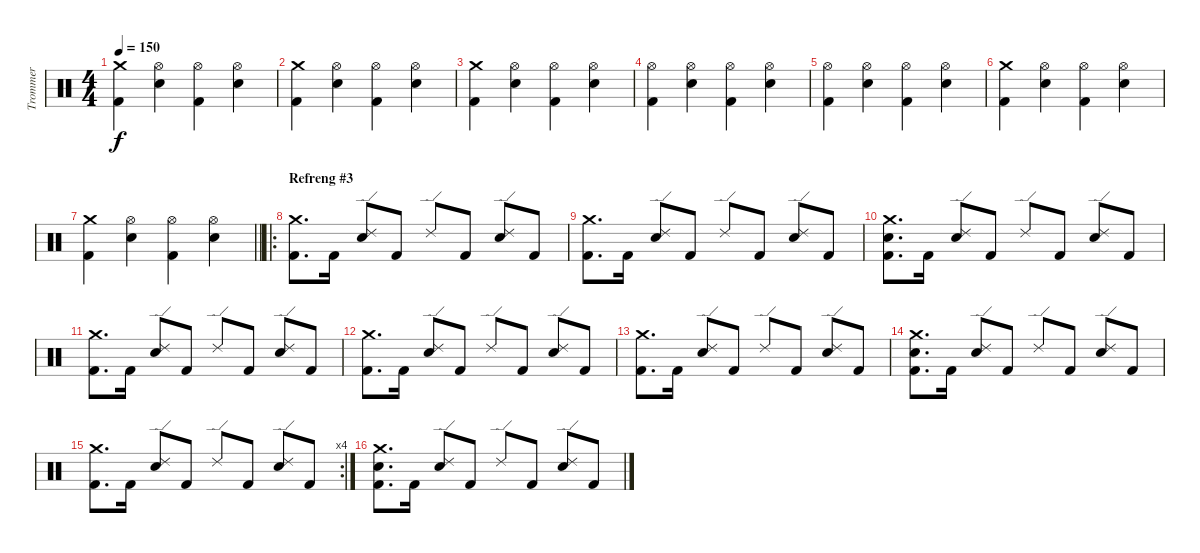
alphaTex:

\track ("Trommer" "Trommer") {instrument percussion}
\staff {score}
\articulation defaults
\ts (4 4)
\tempo 150
\clef neutral
\ks c
("Crash medium (hit)" "Kick (hit) 2").4{dy f} ("Hi-Hat (open)" "Snare (hit) 2").4 ("Hi-Hat (open)" "Kick (hit) 2").4 ("Hi-Hat (open)" "Snare (hit) 2").4 |
("Crash medium (hit)" "Kick (hit) 2").4 ("Hi-Hat (open)" "Snare (hit) 2").4 ("Hi-Hat (open)" "Kick (hit) 2").4 ("Hi-Hat (open)" "Snare (hit) 2").4 |
("Crash medium (hit)" "Kick (hit) 2").4 ("Hi-Hat (open)" "Snare (hit) 2").4 ("Hi-Hat (open)" "Kick (hit) 2").4 ("Hi-Hat (open)" "Snare (hit) 2").4 |
("Hi-Hat (open)" "Kick (hit) 2").4 ("Hi-Hat (open)" "Snare (hit) 2").4 ("Hi-Hat (open)" "Kick (hit) 2").4 ("Hi-Hat (open)" "Snare (hit) 2").4 |
("Hi-Hat (open)" "Kick (hit) 2").4 ("Hi-Hat (open)" "Snare (hit) 2").4 ("Hi-Hat (open)" "Kick (hit) 2").4 ("Hi-Hat (open)" "Snare (hit) 2").4 |
("Crash medium (hit)" "Kick (hit) 2").4 ("Hi-Hat (open)" "Snare (hit) 2").4 ("Hi-Hat (open)" "Kick (hit) 2").4 ("Hi-Hat (open)" "Snare (hit) 2").4 |
\barLineRight lightlight
("Crash medium (hit)" "Kick (hit) 2").4 ("Hi-Hat (open)" "Snare (hit) 2").4 ("Hi-Hat (open)" "Kick (hit) 2").4 ("Hi-Hat (open)" "Snare (hit) 2").4 |
\ro
\section ("" "Refreng #3")
("Crash medium (hit)" "Kick (hit) 2").8{d} "Kick (hit) 2".16 ("Ride (edge) 2" "Snare (hit) 2").8 "Kick (hit) 2".8 "Ride (edge) 2".8 "Kick (hit) 2".8 ("Ride (edge) 2" "Snare (hit) 2").8 "Kick (hit) 2".8 |
("Crash medium (hit)" "Kick (hit) 2").8{d} "Kick (hit) 2".16 ("Ride (edge) 2" "Snare (hit) 2").8 "Kick (hit) 2".8 "Ride (edge) 2".8 "Kick (hit) 2".8 ("Ride (edge) 2" "Snare (hit) 2").8 "Kick (hit) 2".8 |
("Crash medium (hit)" "Snare (hit) 2" "Kick (hit) 2").8{d} "Kick (hit) 2".16 ("Ride (edge) 2" "Snare (hit) 2").8 "Kick (hit) 2".8 "Ride (edge) 2".8 "Kick (hit) 2".8 ("Ride (edge) 2" "Snare (hit) 2").8 "Kick (hit) 2".8 |
("Crash medium (hit)" "Kick (hit) 2").8{d} "Kick (hit) 2".16 ("Ride (edge) 2" "Snare (hit) 2").8 "Kick (hit) 2".8 "Ride (edge) 2".8 "Kick (hit) 2".8 ("Ride (edge) 2" "Snare (hit) 2").8 "Kick (hit) 2".8 |
("Crash medium (hit)" "Kick (hit) 2").8{d} "Kick (hit) 2".16 ("Ride (edge) 2" "Snare (hit) 2").8 "Kick (hit) 2".8 "Ride (edge) 2".8 "Kick (hit) 2".8 ("Ride (edge) 2" "Snare (hit) 2").8 "Kick (hit) 2".8 |
("Crash medium (hit)" "Kick (hit) 2").8{d} "Kick (hit) 2".16 ("Ride (edge) 2" "Snare (hit) 2").8 "Kick (hit) 2".8 "Ride (edge) 2".8 "Kick (hit) 2".8 ("Ride (edge) 2" "Snare (hit) 2").8 "Kick (hit) 2".8 |
("Crash medium (hit)" "Snare (hit) 2" "Kick (hit) 2").8{d} "Kick (hit) 2".16 ("Ride (edge) 2" "Snare (hit) 2").8 "Kick (hit) 2".8 "Ride (edge) 2".8 "Kick (hit) 2".8 ("Ride (edge) 2" "Snare (hit) 2").8 "Kick (hit) 2".8 |
\rc 4
("Crash medium (hit)" "Kick (hit) 2").8{d} "Kick (hit) 2".16 ("Ride (edge) 2" "Snare (hit) 2").8 "Kick (hit) 2".8 "Ride (edge) 2".8 "Kick (hit) 2".8 ("Ride (edge) 2" "Snare (hit) 2").8 "Kick (hit) 2".8 |
("Crash medium (hit)" "Snare (hit) 2" "Kick (hit) 2").8{d} "Kick (hit) 2".16 ("Ride (edge) 2" "Snare (hit) 2").8 "Kick (hit) 2".8 "Ride (edge) 2".8 "Kick (hit) 2".8 ("Ride (edge) 2" "Snare (hit) 2").8 "Kick (hit) 2".8
